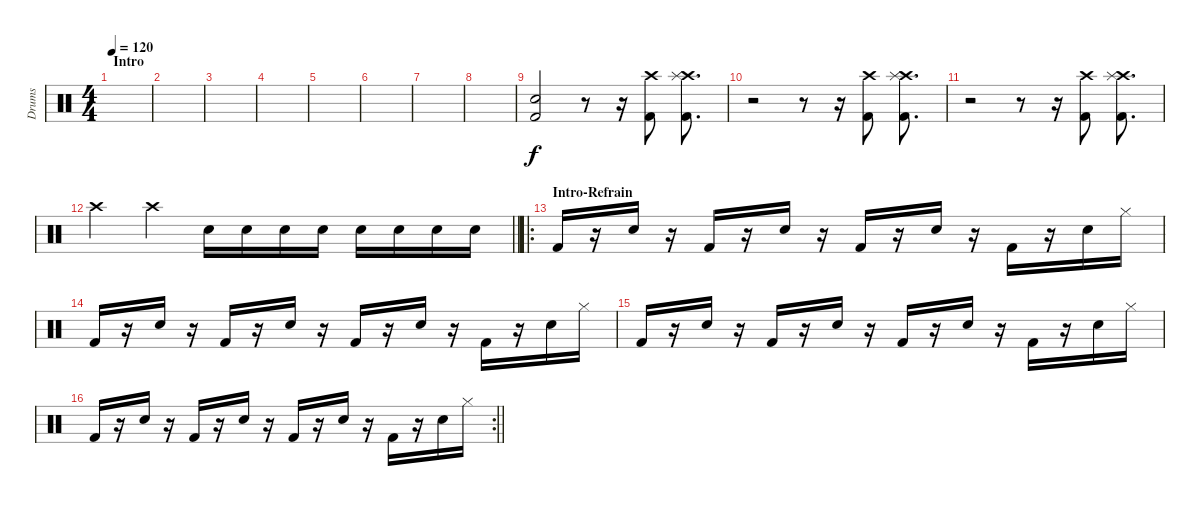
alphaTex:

\track ("Drums" "Drums") {instrument percussion}
\staff {score}
\articulation defaults
\ts (4 4)
\section ("" "Intro")
\tempo 120
\clef neutral
\ks c
|
|
|
|
|
|
|
|
("Kick (hit) 2" "Electric Snare (hit)").2 r.8 r.16 ("Crash high (hit)" "Kick (hit) 2").8 ("Crash high (hit)" "Splash (hit)" "Kick (hit) 2").8{d} |
r.2 r.8 r.16 ("Crash high (hit)" "Kick (hit) 2").8 ("Crash high (hit)" "Splash (hit)" "Kick (hit) 2").8{d} |
r.2 r.8 r.16 ("Crash high (hit)" "Kick (hit) 2").8 ("Crash high (hit)" "Splash (hit)" "Kick (hit) 2").8{d} |
\barLineRight lightlight "Crash high (hit)".4 "Crash high (hit)".4 "Electric Snare (hit)".16 "Electric Snare (hit)".16 "Electric Snare (hit)".16 "Electric Snare (hit)".16 "Electric Snare (hit)".16 "Electric Snare (hit)".16 "Electric Snare (hit)".16 "Electric Snare (hit)".16
|
\ro
\section ("" "Intro-Refrain")
"Kick (hit) 2".16 r.16 "Snare (hit) 2".16 r.16 "Kick (hit) 2".16 r.16 "Snare (hit) 2".16 r.16 "Kick (hit) 2".16 r.16 "Snare (hit) 2".16 r.16 "Kick (hit) 2".16 r.16 "Snare (hit) 2".16 "Hi-Hat (closed)".16 |
"Kick (hit) 2".16 r.16 "Snare (hit) 2".16 r.16 "Kick (hit) 2".16 r.16 "Snare (hit) 2".16 r.16 "Kick (hit) 2".16 r.16 "Snare (hit) 2".16 r.16 "Kick (hit) 2".16 r.16 "Snare (hit) 2".16 "Hi-Hat (closed)".16 |
"Kick (hit) 2".16 r.16 "Snare (hit) 2".16 r.16 "Kick (hit) 2".16 r.16 "Snare (hit) 2".16 r.16 "Kick (hit) 2".16 r.16 "Snare (hit) 2".16 r.16 "Kick (hit) 2".16 r.16 "Snare (hit) 2".16 "Hi-Hat (closed)".16 |
\rc 2
\barLineRight lightlight "Kick (hit) 2".16
r.16 "Snare (hit) 2".16 r.16 "Kick (hit) 2".16 r.16 "Snare (hit) 2".16 r.16 "Kick (hit) 2".16 r.16 "Snare (hit) 2".16 r.16 "Kick (hit) 2".16 r.16 "Snare (hit) 2".16 "Hi-Hat (closed)".16
